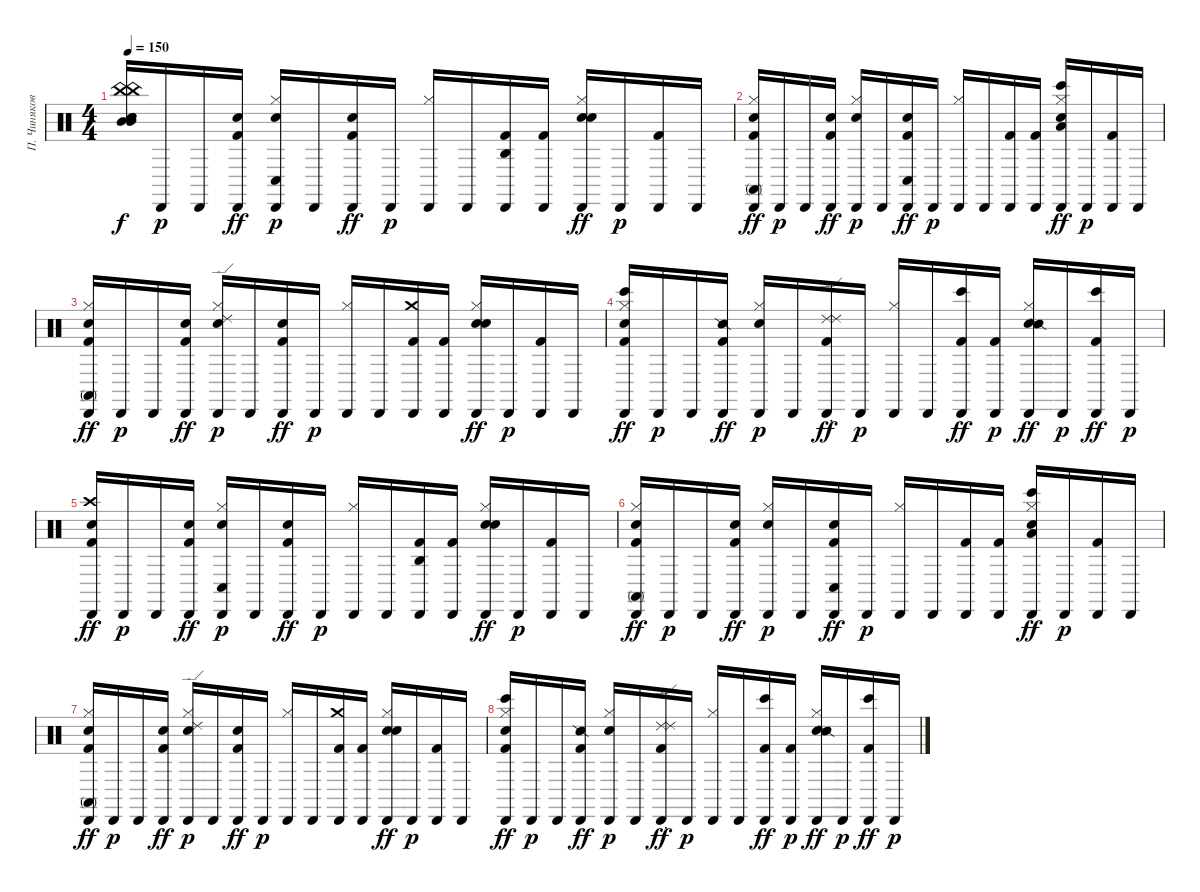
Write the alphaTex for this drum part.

\track ("П. Чиняков" "П. Чиняков") {instrument percussion}
\staff {score}
\articulation defaults
\ts (4 4)
\tempo 150
\clef neutral
\ks c
("China (hit)" "Mid Tom (hit)" "Electric Snare (hit)" "China (hit)" "Mid Tom (hit)" "Electric Snare (hit)").16{dy f} "Cabasa (hit)".16{dy p} "Cabasa (hit)".16 ("Cabasa (hit)" "Kick (hit) 2" "Snare (hit) 2").16{dy ff} ("Hi-Hat (closed)" "Cabasa (hit)" "Snare (hit) 2" "Conga low (hit)").16{dy p} "Cabasa (hit)".16 ("Cabasa (hit)" "Kick (hit) 2" "Electric Snare (hit)").16{dy ff} "Cabasa (hit)".16{dy p} ("Hi-Hat (closed)" "Cabasa (hit)").16 "Cabasa (hit)".16 ("Cabasa (hit)" "Kick (hit) 2" "Agogo high (hit)").16 ("Cabasa (hit)" "Kick (hit) 2").16 ("Hi-Hat (closed)" "Cabasa (hit)" "Snare (hit) 2" "Snare (hit) 2").16{dy ff} "Cabasa (hit)".16{dy p} ("Cabasa (hit)" "Kick (hit) 2").16 "Cabasa (hit)".16 |
("Hi-Hat (closed)" "Cabasa (hit)" "Kick (hit) 2" "Electric Snare (hit)" "Conga high (mute)").16{dy ff} "Cabasa (hit)".16{dy p} "Cabasa (hit)".16 ("Cabasa (hit)" "Kick (hit) 2" "Snare (hit) 2").16{dy ff} ("Hi-Hat (closed)" "Cabasa (hit)" "Snare (hit) 2").16{dy p} "Cabasa (hit)".16 ("Cabasa (hit)" "Kick (hit) 2" "Electric Snare (hit)" "Conga low (hit)").16{dy ff} "Cabasa (hit)".16{dy p} ("Hi-Hat (closed)" "Cabasa (hit)").16 "Cabasa (hit)".16 ("Cabasa (hit)" "Kick (hit) 2").16 ("Cabasa (hit)" "Kick (hit) 2").16 ("Hi-Hat (closed)" "Cabasa (hit)" "Snare (hit) 2" "Low Floor Tom (hit)" "Bongo High (hit)").16{dy ff} "Cabasa (hit)".16{dy p} ("Cabasa (hit)" "Kick (hit) 2").16 "Cabasa (hit)".16 |
("Hi-Hat (closed)" "Cabasa (hit)" "Kick (hit) 2" "Electric Snare (hit)" "Conga high (mute)").16{dy ff} "Cabasa (hit)".16{dy p} "Cabasa (hit)".16 ("Cabasa (hit)" "Kick (hit) 2" "Snare (hit) 2").16{dy ff} ("Hi-Hat (closed)" "Cabasa (hit)" "Snare (hit) 2" "Ride (edge) 2").16{dy p} "Cabasa (hit)".16 ("Cabasa (hit)" "Kick (hit) 2" "Electric Snare (hit)").16{dy ff} "Cabasa (hit)".16{dy p} ("Hi-Hat (closed)" "Cabasa (hit)").16 "Cabasa (hit)".16 ("Cabasa (hit)" "Kick (hit) 2" "Crash medium (hit)").16 ("Cabasa (hit)" "Kick (hit) 2").16 ("Hi-Hat (closed)" "Cabasa (hit)" "Snare (hit) 2" "Snare (hit) 2").16{dy ff} "Cabasa (hit)".16{dy p} ("Cabasa (hit)" "Kick (hit) 2").16 "Cabasa (hit)".16 |
("Hi-Hat (closed)" "Cabasa (hit)" "Kick (hit) 2" "Snare (hit) 2" "Bongo High (hit)").16{dy ff} "Cabasa (hit)".16{dy p} "Cabasa (hit)".16 ("Cabasa (hit)" "Kick (hit) 2" "Snare (side stick) 2").16{dy ff} ("Hi-Hat (closed)" "Cabasa (hit)" "Snare (hit) 2").16{dy p} "Cabasa (hit)".16 ("Cabasa (hit)" "Kick (hit) 2" "Ride (choke) 2" "Ride (edge) 2").16{dy ff} "Cabasa (hit)".16{dy p} ("Hi-Hat (closed)" "Cabasa (hit)").16 "Cabasa (hit)".16 ("Cabasa (hit)" "Kick (hit) 2" "Bongo High (hit)").16{dy ff} ("Cabasa (hit)" "Kick (hit) 2").16{dy p} ("Hi-Hat (closed)" "Cabasa (hit)" "Snare (hit) 2" "Snare (side stick) 2").16{dy ff} "Cabasa (hit)".16{dy p} ("Cabasa (hit)" "Kick (hit) 2" "Bongo High (hit)").16{dy ff} "Cabasa (hit)".16{dy p} |
("Cabasa (hit)" "Crash high (hit)" "Kick (hit) 2" "Electric Snare (hit)").16{dy ff} "Cabasa (hit)".16{dy p} "Cabasa (hit)".16 ("Cabasa (hit)" "Kick (hit) 2" "Snare (hit) 2").16{dy ff} ("Hi-Hat (closed)" "Cabasa (hit)" "Snare (hit) 2" "Conga low (hit)").16{dy p} "Cabasa (hit)".16 ("Cabasa (hit)" "Kick (hit) 2" "Electric Snare (hit)").16{dy ff} "Cabasa (hit)".16{dy p} ("Hi-Hat (closed)" "Cabasa (hit)").16 "Cabasa (hit)".16 ("Cabasa (hit)" "Kick (hit) 2" "Agogo high (hit)").16 ("Cabasa (hit)" "Kick (hit) 2").16 ("Hi-Hat (closed)" "Cabasa (hit)" "Snare (hit) 2" "Snare (hit) 2").16{dy ff} "Cabasa (hit)".16{dy p} ("Cabasa (hit)" "Kick (hit) 2").16 "Cabasa (hit)".16 |
("Hi-Hat (closed)" "Cabasa (hit)" "Kick (hit) 2" "Electric Snare (hit)" "Conga high (mute)").16{dy ff} "Cabasa (hit)".16{dy p} "Cabasa (hit)".16 ("Cabasa (hit)" "Kick (hit) 2" "Snare (hit) 2").16{dy ff} ("Hi-Hat (closed)" "Cabasa (hit)" "Snare (hit) 2").16{dy p} "Cabasa (hit)".16 ("Cabasa (hit)" "Kick (hit) 2" "Electric Snare (hit)" "Conga low (hit)").16{dy ff} "Cabasa (hit)".16{dy p} ("Hi-Hat (closed)" "Cabasa (hit)").16 "Cabasa (hit)".16 ("Cabasa (hit)" "Kick (hit) 2").16 ("Cabasa (hit)" "Kick (hit) 2").16 ("Hi-Hat (closed)" "Cabasa (hit)" "Snare (hit) 2" "Low Floor Tom (hit)" "Bongo High (hit)").16{dy ff} "Cabasa (hit)".16{dy p} ("Cabasa (hit)" "Kick (hit) 2").16 "Cabasa (hit)".16 |
("Hi-Hat (closed)" "Cabasa (hit)" "Kick (hit) 2" "Electric Snare (hit)" "Conga high (mute)").16{dy ff} "Cabasa (hit)".16{dy p} "Cabasa (hit)".16 ("Cabasa (hit)" "Kick (hit) 2" "Snare (hit) 2").16{dy ff} ("Hi-Hat (closed)" "Cabasa (hit)" "Snare (hit) 2" "Ride (edge) 2").16{dy p} "Cabasa (hit)".16 ("Cabasa (hit)" "Kick (hit) 2" "Electric Snare (hit)").16{dy ff} "Cabasa (hit)".16{dy p} ("Hi-Hat (closed)" "Cabasa (hit)").16 "Cabasa (hit)".16 ("Cabasa (hit)" "Kick (hit) 2" "Crash medium (hit)").16 ("Cabasa (hit)" "Kick (hit) 2").16 ("Hi-Hat (closed)" "Cabasa (hit)" "Snare (hit) 2" "Snare (hit) 2").16{dy ff} "Cabasa (hit)".16{dy p} ("Cabasa (hit)" "Kick (hit) 2").16 "Cabasa (hit)".16 |
("Hi-Hat (closed)" "Cabasa (hit)" "Kick (hit) 2" "Snare (hit) 2" "Bongo High (hit)").16{dy ff} "Cabasa (hit)".16{dy p} "Cabasa (hit)".16 ("Cabasa (hit)" "Kick (hit) 2" "Snare (side stick) 2").16{dy ff} ("Hi-Hat (closed)" "Cabasa (hit)" "Snare (hit) 2").16{dy p} "Cabasa (hit)".16 ("Cabasa (hit)" "Kick (hit) 2" "Ride (choke) 2" "Ride (edge) 2").16{dy ff} "Cabasa (hit)".16{dy p} ("Hi-Hat (closed)" "Cabasa (hit)").16 "Cabasa (hit)".16 ("Cabasa (hit)" "Kick (hit) 2" "Bongo High (hit)").16{dy ff} ("Cabasa (hit)" "Kick (hit) 2").16{dy p} ("Hi-Hat (closed)" "Cabasa (hit)" "Snare (hit) 2" "Snare (side stick) 2").16{dy ff} "Cabasa (hit)".16{dy p} ("Cabasa (hit)" "Kick (hit) 2" "Bongo High (hit)").16{dy ff} "Cabasa (hit)".16{dy p}
